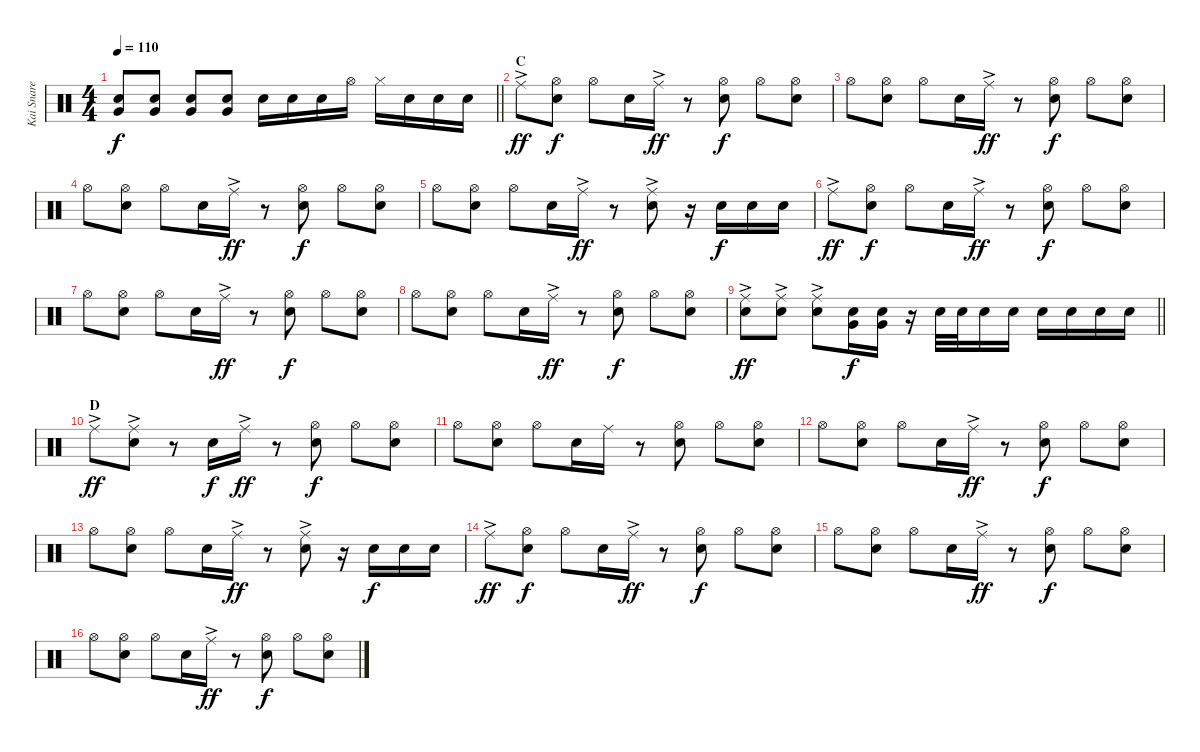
\track ("Kai Snare" "Kai Snare") {instrument percussion}
\staff {score}
\articulation defaults
\ts (4 4)
\tempo 110
\clef neutral
\barLineRight lightlight
\ks c
("Very Low Tom (hit)" "Snare (hit) 2").8{dy f} ("Very Low Tom (hit)" "Snare (hit) 2").8 ("Very Low Tom (hit)" "Snare (hit) 2").8 ("Very Low Tom (hit)" "Snare (hit) 2").8 "Snare (hit) 2".16 "Snare (hit) 2".16 "Snare (hit) 2".16 "Hi-Hat (open)".16 "Hi-Hat (closed)".16 "Snare (hit) 2".16 "Snare (hit) 2".16 "Snare (hit) 2".16 |
\section ("" "C")
"Ride (middle)"{ac}.8{dy ff} ("Hi-Hat (open)" "Snare (hit) 2").8{dy f} "Hi-Hat (open)".8 "Snare (hit) 2".16 "Ride (middle)"{ac}.16{dy ff} r.8 ("Hi-Hat (open)" "Snare (hit) 2").8{dy f} "Hi-Hat (open)".8 ("Hi-Hat (open)" "Snare (hit) 2").8 |
"Hi-Hat (open)".8 ("Hi-Hat (open)" "Snare (hit) 2").8 "Hi-Hat (open)".8 "Snare (hit) 2".16 "Ride (middle)"{ac}.16{dy ff} r.8 ("Hi-Hat (open)" "Snare (hit) 2").8{dy f} "Hi-Hat (open)".8 ("Hi-Hat (open)" "Snare (hit) 2").8 |
"Hi-Hat (open)".8 ("Hi-Hat (open)" "Snare (hit) 2").8 "Hi-Hat (open)".8 "Snare (hit) 2".16 "Ride (middle)"{ac}.16{dy ff} r.8 ("Hi-Hat (open)" "Snare (hit) 2").8{dy f} "Hi-Hat (open)".8 ("Hi-Hat (open)" "Snare (hit) 2").8 |
"Hi-Hat (open)".8 ("Hi-Hat (open)" "Snare (hit) 2").8 "Hi-Hat (open)".8 "Snare (hit) 2".16 "Ride (middle)"{ac}.16{dy ff} r.8 ("Ride (middle)"{ac} "Snare (hit) 2").8 r.16 "Snare (hit) 2".16{dy f} "Snare (hit) 2".16 "Snare (hit) 2".16 |
"Ride (middle)"{ac}.8{dy ff} ("Hi-Hat (open)" "Snare (hit) 2").8{dy f} "Hi-Hat (open)".8 "Snare (hit) 2".16 "Ride (middle)"{ac}.16{dy ff} r.8 ("Hi-Hat (open)" "Snare (hit) 2").8{dy f} "Hi-Hat (open)".8 ("Hi-Hat (open)" "Snare (hit) 2").8 |
"Hi-Hat (open)".8 ("Hi-Hat (open)" "Snare (hit) 2").8 "Hi-Hat (open)".8 "Snare (hit) 2".16 "Ride (middle)"{ac}.16{dy ff} r.8 ("Hi-Hat (open)" "Snare (hit) 2").8{dy f} "Hi-Hat (open)".8 ("Hi-Hat (open)" "Snare (hit) 2").8 |
"Hi-Hat (open)".8 ("Hi-Hat (open)" "Snare (hit) 2").8 "Hi-Hat (open)".8 "Snare (hit) 2".16 "Ride (middle)"{ac}.16{dy ff} r.8 ("Hi-Hat (open)" "Snare (hit) 2").8{dy f} "Hi-Hat (open)".8 ("Hi-Hat (open)" "Snare (hit) 2").8 |
\barLineRight lightlight
("Ride (middle)"{ac} "Snare (hit) 2").8{dy ff} ("Ride (middle)"{ac} "Snare (hit) 2").8 ("Ride (middle)"{ac} "Snare (hit) 2").8 ("Very Low Tom (hit)" "Snare (hit) 2").16{dy f} ("Very Low Tom (hit)" "Snare (hit) 2").16 r.16 "Snare (hit) 2".32 "Snare (hit) 2".32 "Snare (hit) 2".16 "Snare (hit) 2".16 "Snare (hit) 2".16 "Snare (hit) 2".16 "Snare (hit) 2".16 "Snare (hit) 2".16 |
\section ("" "D")
"Ride (middle)"{ac}.8{dy ff} ("Ride (middle)"{ac} "Snare (hit) 2").8 r.8 "Snare (hit) 2".16{dy f} "Ride (middle)"{ac}.16{dy ff} r.8 ("Hi-Hat (open)" "Snare (hit) 2").8{dy f} "Hi-Hat (open)".8 ("Hi-Hat (open)" "Snare (hit) 2").8 |
"Hi-Hat (open)".8 ("Hi-Hat (open)" "Snare (hit) 2").8 "Hi-Hat (open)".8 "Snare (hit) 2".16 "Ride (middle)".16 r.8 ("Hi-Hat (open)" "Snare (hit) 2").8 "Hi-Hat (open)".8 ("Hi-Hat (open)" "Snare (hit) 2").8 |
"Hi-Hat (open)".8 ("Hi-Hat (open)" "Snare (hit) 2").8 "Hi-Hat (open)".8 "Snare (hit) 2".16 "Ride (middle)"{ac}.16{dy ff} r.8 ("Hi-Hat (open)" "Snare (hit) 2").8{dy f} "Hi-Hat (open)".8 ("Hi-Hat (open)" "Snare (hit) 2").8 |
"Hi-Hat (open)".8 ("Hi-Hat (open)" "Snare (hit) 2").8 "Hi-Hat (open)".8 "Snare (hit) 2".16 "Ride (middle)"{ac}.16{dy ff} r.8 ("Ride (middle)"{ac} "Snare (hit) 2").8 r.16 "Snare (hit) 2".16{dy f} "Snare (hit) 2".16 "Snare (hit) 2".16 |
"Ride (middle)"{ac}.8{dy ff} ("Hi-Hat (open)" "Snare (hit) 2").8{dy f} "Hi-Hat (open)".8 "Snare (hit) 2".16 "Ride (middle)"{ac}.16{dy ff} r.8 ("Hi-Hat (open)" "Snare (hit) 2").8{dy f} "Hi-Hat (open)".8 ("Hi-Hat (open)" "Snare (hit) 2").8 |
"Hi-Hat (open)".8 ("Hi-Hat (open)" "Snare (hit) 2").8 "Hi-Hat (open)".8 "Snare (hit) 2".16 "Ride (middle)"{ac}.16{dy ff} r.8 ("Hi-Hat (open)" "Snare (hit) 2").8{dy f} "Hi-Hat (open)".8 ("Hi-Hat (open)" "Snare (hit) 2").8 |
"Hi-Hat (open)".8 ("Hi-Hat (open)" "Snare (hit) 2").8 "Hi-Hat (open)".8 "Snare (hit) 2".16 "Ride (middle)"{ac}.16{dy ff} r.8 ("Hi-Hat (open)" "Snare (hit) 2").8{dy f} "Hi-Hat (open)".8 ("Hi-Hat (open)" "Snare (hit) 2").8
